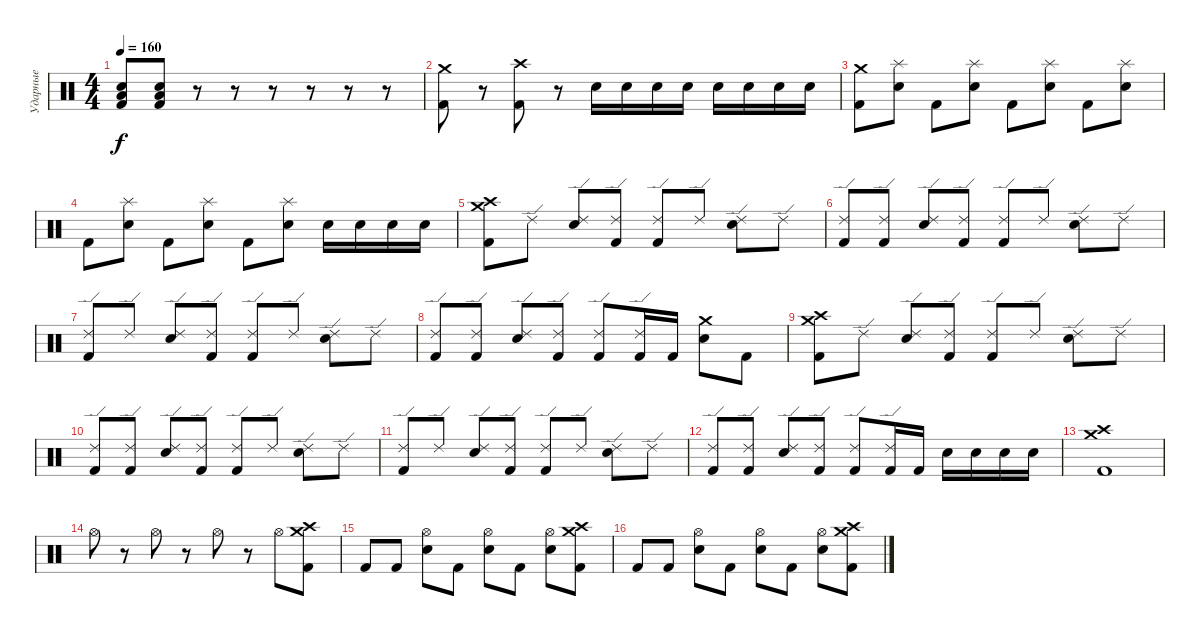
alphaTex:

\track ("Ударные" "Ударные") {instrument percussion}
\staff {score}
\articulation defaults
\ts (4 4)
\tempo 160
\clef neutral
\ks c
("Kick (hit) 2" "Low Tom (hit)" "Electric Snare (hit)").8{dy f} ("Kick (hit) 2" "Low Tom (hit)" "Electric Snare (hit)").8 r.8 r.8 r.8 r.8 r.8 r.8 |
("Crash medium (hit)" "Kick (hit) 2").8 r.8 ("Crash high (hit)" "Kick (hit) 2").8 r.8 "Electric Snare (hit)".16 "Electric Snare (hit)".16 "Electric Snare (hit)".16 "Electric Snare (hit)".16 "Electric Snare (hit)".16 "Electric Snare (hit)".16 "Electric Snare (hit)".16 "Electric Snare (hit)".16 |
("Crash medium (hit)" "Kick (hit) 2").8 ("Splash (hit)" "Electric Snare (hit)").8 "Kick (hit) 2".8 ("Splash (hit)" "Electric Snare (hit)").8 "Kick (hit) 2".8 ("Splash (hit)" "Electric Snare (hit)").8 "Kick (hit) 2".8 ("Splash (hit)" "Electric Snare (hit)").8 |
"Kick (hit) 2".8 ("Splash (hit)" "Electric Snare (hit)").8 "Kick (hit) 2".8 ("Splash (hit)" "Electric Snare (hit)").8 "Kick (hit) 2".8 ("Splash (hit)" "Electric Snare (hit)").8 "Electric Snare (hit)".16 "Electric Snare (hit)".16 "Electric Snare (hit)".16 "Electric Snare (hit)".16 |
("Crash medium (hit)" "Crash high (hit)" "Kick (hit) 2").8 "Ride (edge) 2".8 ("Ride (edge) 2" "Electric Snare (hit)").8 ("Ride (edge) 2" "Kick (hit) 2").8 ("Ride (edge) 2" "Kick (hit) 2").8 "Ride (edge) 2".8 ("Ride (edge) 2" "Electric Snare (hit)").8 "Ride (edge) 2".8 |
("Ride (edge) 2" "Kick (hit) 2").8 ("Ride (edge) 2" "Kick (hit) 2").8 ("Ride (edge) 2" "Electric Snare (hit)").8 ("Ride (edge) 2" "Kick (hit) 2").8 ("Ride (edge) 2" "Kick (hit) 2").8 "Ride (edge) 2".8 ("Ride (edge) 2" "Electric Snare (hit)").8 "Ride (edge) 2".8 |
("Ride (edge) 2" "Kick (hit) 2").8 "Ride (edge) 2".8 ("Ride (edge) 2" "Electric Snare (hit)").8 ("Ride (edge) 2" "Kick (hit) 2").8 ("Ride (edge) 2" "Kick (hit) 2").8 "Ride (edge) 2".8 ("Ride (edge) 2" "Electric Snare (hit)").8 "Ride (edge) 2".8 |
("Ride (edge) 2" "Kick (hit) 2").8 ("Ride (edge) 2" "Kick (hit) 2").8 ("Ride (edge) 2" "Electric Snare (hit)").8 ("Ride (edge) 2" "Kick (hit) 2").8 ("Ride (edge) 2" "Kick (hit) 2").8 ("Ride (edge) 2" "Kick (hit) 2").16 "Kick (hit) 2".16 ("Crash medium (hit)" "Electric Snare (hit)").8 "Kick (hit) 2".8 |
("Crash medium (hit)" "Crash high (hit)" "Kick (hit) 2").8 "Ride (edge) 2".8 ("Ride (edge) 2" "Electric Snare (hit)").8 ("Ride (edge) 2" "Kick (hit) 2").8 ("Ride (edge) 2" "Kick (hit) 2").8 "Ride (edge) 2".8 ("Ride (edge) 2" "Electric Snare (hit)").8 "Ride (edge) 2".8 |
("Ride (edge) 2" "Kick (hit) 2").8 ("Ride (edge) 2" "Kick (hit) 2").8 ("Ride (edge) 2" "Electric Snare (hit)").8 ("Ride (edge) 2" "Kick (hit) 2").8 ("Ride (edge) 2" "Kick (hit) 2").8 "Ride (edge) 2".8 ("Ride (edge) 2" "Electric Snare (hit)").8 "Ride (edge) 2".8 |
("Ride (edge) 2" "Kick (hit) 2").8 "Ride (edge) 2".8 ("Ride (edge) 2" "Electric Snare (hit)").8 ("Ride (edge) 2" "Kick (hit) 2").8 ("Ride (edge) 2" "Kick (hit) 2").8 "Ride (edge) 2".8 ("Ride (edge) 2" "Electric Snare (hit)").8 "Ride (edge) 2".8 |
("Ride (edge) 2" "Kick (hit) 2").8 ("Ride (edge) 2" "Kick (hit) 2").8 ("Ride (edge) 2" "Electric Snare (hit)").8 ("Ride (edge) 2" "Kick (hit) 2").8 ("Ride (edge) 2" "Kick (hit) 2").8 ("Ride (edge) 2" "Kick (hit) 2").16 "Kick (hit) 2".16 "Electric Snare (hit)".16 "Electric Snare (hit)".16 "Electric Snare (hit)".16 "Electric Snare (hit)".16 |
("Crash medium (hit)" "Crash high (hit)" "Kick (hit) 2").1 |
"Hi-Hat (open)".8 r.8 "Hi-Hat (open)".8 r.8 "Hi-Hat (open)".8 r.8 "Hi-Hat (open)".8 ("Crash medium (hit)" "Crash high (hit)" "Kick (hit) 2").8 |
"Kick (hit) 2".8 "Kick (hit) 2".8 ("Hi-Hat (open)" "Electric Snare (hit)").8 "Kick (hit) 2".8 ("Hi-Hat (open)" "Electric Snare (hit)").8 "Kick (hit) 2".8 ("Hi-Hat (open)" "Electric Snare (hit)").8 ("Crash medium (hit)" "Crash high (hit)" "Kick (hit) 2").8 |
"Kick (hit) 2".8 "Kick (hit) 2".8 ("Hi-Hat (open)" "Electric Snare (hit)").8 "Kick (hit) 2".8 ("Hi-Hat (open)" "Electric Snare (hit)").8 "Kick (hit) 2".8 ("Hi-Hat (open)" "Electric Snare (hit)").8 ("Crash medium (hit)" "Crash high (hit)" "Kick (hit) 2").8
